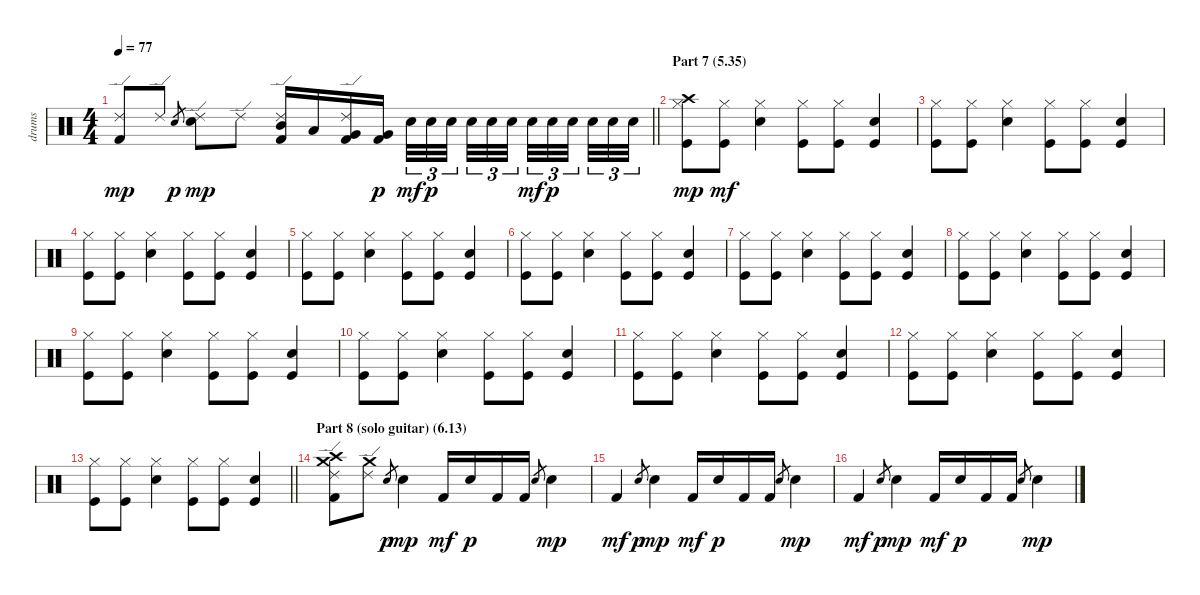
\track ("drums" "drums") {instrument percussion}
\staff {score}
\articulation defaults
\ts (4 4)
\tempo 77
\clef neutral
\barLineRight lightlight
\ks c
("Ride (edge) 2" "Kick (hit) 2").8{dy mp} "Ride (edge) 2".8 "Snare (hit) 2".8{gr dy p} ("Ride (edge) 2" "Snare (hit) 2").8{dy mp} "Ride (edge) 2".8 ("Mid Tom (hit)" "Ride (edge) 2" "Kick (hit) 2").16 "Low Tom (hit)".16 ("Very Low Tom (hit)" "Kick (hit) 2" "Ride (edge) 2").16 ("Very Low Tom (hit)" "Kick (hit) 2").16{dy p} "Snare (hit) 2".32{tu (3 2) dy mf} "Snare (hit) 2".32{tu (3 2) dy p} "Snare (hit) 2".32{tu (3 2) beam splitsecondary} "Snare (hit) 2".32{tu (3 2)} "Snare (hit) 2".32{tu (3 2)} "Snare (hit) 2".32{tu (3 2) beam splitsecondary} "Snare (hit) 2".32{tu (3 2) dy mf} "Snare (hit) 2".32{tu (3 2) dy p} "Snare (hit) 2".32{tu (3 2) beam splitsecondary} "Snare (hit) 2".32{tu (3 2)} "Snare (hit) 2".32{tu (3 2)} "Snare (hit) 2".32{tu (3 2)} |
\section ("" "Part 7 (5.35)")
("Kick (hit)" "Hi-Hat (closed)" "Crash high (hit)").8{dy mp} ("Kick (hit)" "Hi-Hat (closed)").8{dy mf} ("Snare (hit) 2" "Hi-Hat (closed)").4 ("Kick (hit)" "Hi-Hat (closed)").8 ("Kick (hit)" "Hi-Hat (closed)").8 ("Snare (hit) 2" "Kick (hit)").4 |
("Kick (hit)" "Hi-Hat (closed)").8 ("Kick (hit)" "Hi-Hat (closed)").8 ("Snare (hit) 2" "Hi-Hat (closed)").4 ("Kick (hit)" "Hi-Hat (closed)").8 ("Kick (hit)" "Hi-Hat (closed)").8 ("Snare (hit) 2" "Kick (hit)").4 |
("Kick (hit)" "Hi-Hat (closed)").8 ("Kick (hit)" "Hi-Hat (closed)").8 ("Snare (hit) 2" "Hi-Hat (closed)").4 ("Kick (hit)" "Hi-Hat (closed)").8 ("Kick (hit)" "Hi-Hat (closed)").8 ("Snare (hit) 2" "Kick (hit)").4 |
("Kick (hit)" "Hi-Hat (closed)").8 ("Kick (hit)" "Hi-Hat (closed)").8 ("Snare (hit) 2" "Hi-Hat (closed)").4 ("Kick (hit)" "Hi-Hat (closed)").8 ("Kick (hit)" "Hi-Hat (closed)").8 ("Snare (hit) 2" "Kick (hit)").4 |
("Kick (hit)" "Hi-Hat (closed)").8 ("Kick (hit)" "Hi-Hat (closed)").8 ("Snare (hit) 2" "Hi-Hat (closed)").4 ("Kick (hit)" "Hi-Hat (closed)").8 ("Kick (hit)" "Hi-Hat (closed)").8 ("Snare (hit) 2" "Kick (hit)").4 |
("Kick (hit)" "Hi-Hat (closed)").8 ("Kick (hit)" "Hi-Hat (closed)").8 ("Snare (hit) 2" "Hi-Hat (closed)").4 ("Kick (hit)" "Hi-Hat (closed)").8 ("Kick (hit)" "Hi-Hat (closed)").8 ("Snare (hit) 2" "Kick (hit)").4 |
("Kick (hit)" "Hi-Hat (closed)").8 ("Kick (hit)" "Hi-Hat (closed)").8 ("Snare (hit) 2" "Hi-Hat (closed)").4 ("Kick (hit)" "Hi-Hat (closed)").8 ("Kick (hit)" "Hi-Hat (closed)").8 ("Snare (hit) 2" "Kick (hit)").4 |
("Kick (hit)" "Hi-Hat (closed)").8 ("Kick (hit)" "Hi-Hat (closed)").8 ("Snare (hit) 2" "Hi-Hat (closed)").4 ("Kick (hit)" "Hi-Hat (closed)").8 ("Kick (hit)" "Hi-Hat (closed)").8 ("Snare (hit) 2" "Kick (hit)").4 |
("Kick (hit)" "Hi-Hat (closed)").8 ("Kick (hit)" "Hi-Hat (closed)").8 ("Snare (hit) 2" "Hi-Hat (closed)").4 ("Kick (hit)" "Hi-Hat (closed)").8 ("Kick (hit)" "Hi-Hat (closed)").8 ("Snare (hit) 2" "Kick (hit)").4 |
("Kick (hit)" "Hi-Hat (closed)").8 ("Kick (hit)" "Hi-Hat (closed)").8 ("Snare (hit) 2" "Hi-Hat (closed)").4 ("Kick (hit)" "Hi-Hat (closed)").8 ("Kick (hit)" "Hi-Hat (closed)").8 ("Snare (hit) 2" "Kick (hit)").4 |
("Kick (hit)" "Hi-Hat (closed)").8 ("Kick (hit)" "Hi-Hat (closed)").8 ("Snare (hit) 2" "Hi-Hat (closed)").4 ("Kick (hit)" "Hi-Hat (closed)").8 ("Kick (hit)" "Hi-Hat (closed)").8 ("Snare (hit) 2" "Kick (hit)").4 |
\barLineRight lightlight
("Kick (hit)" "Hi-Hat (closed)").8 ("Kick (hit)" "Hi-Hat (closed)").8 ("Snare (hit) 2" "Hi-Hat (closed)").4 ("Kick (hit)" "Hi-Hat (closed)").8 ("Kick (hit)" "Hi-Hat (closed)").8 ("Snare (hit) 2" "Kick (hit)").4 |
\section ("" "Part 8 (solo guitar) (6.13)")
("Crash high (hit)" "Crash medium (hit)" "Ride (edge) 2" "Kick (hit) 2").8 ("Crash medium (hit)" "Ride (edge) 2").8 "Snare (hit) 2".8{gr dy p} "Snare (hit) 2".4{dy mp} "Kick (hit) 2".16{dy mf} "Snare (hit) 2".16{dy p} "Kick (hit) 2".16 "Kick (hit) 2".16 "Snare (hit) 2".8{gr} "Snare (hit) 2".4{dy mp} |
"Kick (hit) 2".4{dy mf} "Snare (hit) 2".8{gr dy p} "Snare (hit) 2".4{dy mp} "Kick (hit) 2".16{dy mf} "Snare (hit) 2".16{dy p} "Kick (hit) 2".16 "Kick (hit) 2".16 "Snare (hit) 2".8{gr} "Snare (hit) 2".4{dy mp} |
"Kick (hit) 2".4{dy mf} "Snare (hit) 2".8{gr dy p} "Snare (hit) 2".4{dy mp} "Kick (hit) 2".16{dy mf} "Snare (hit) 2".16{dy p} "Kick (hit) 2".16 "Kick (hit) 2".16 "Snare (hit) 2".8{gr} "Snare (hit) 2".4{dy mp}
